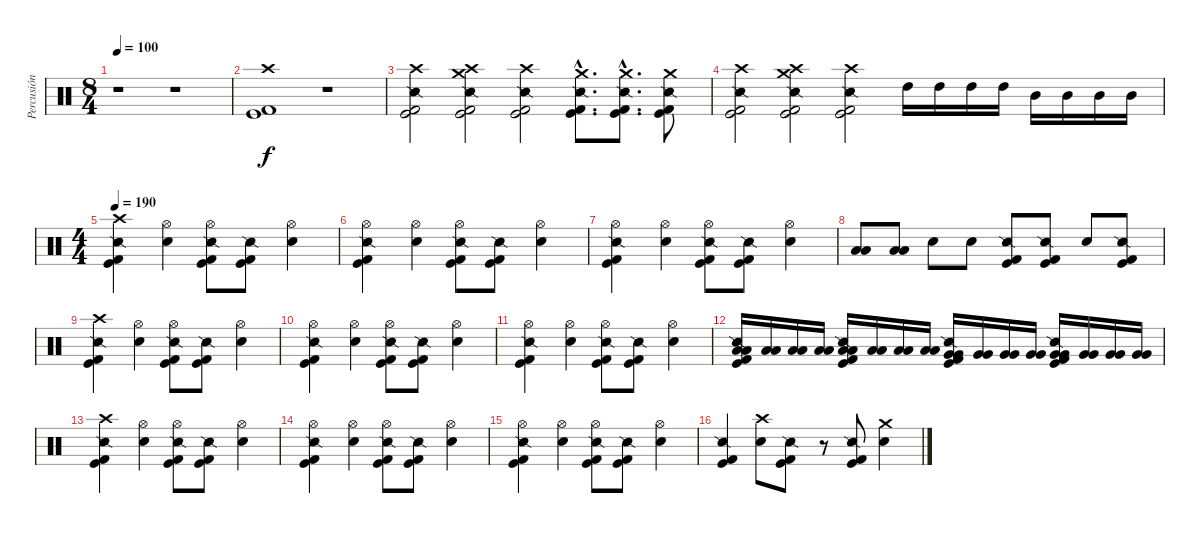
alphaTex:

\track ("Percusión" "Percusión") {instrument percussion}
\staff {score}
\articulation defaults
\ts (8 4)
\tempo 100
\clef neutral
\ks c
r.1{dy f} r.1 |
("Crash high (hit)" "Kick (hit)" "Kick (hit) 2").1 r.1 |
("Crash high (hit)" "Snare (side stick) 2" "Kick (hit)" "Kick (hit) 2").2 ("Crash high (hit)" "Crash medium (hit)" "Snare (side stick) 2" "Kick (hit)" "Kick (hit) 2").2 ("Crash high (hit)" "Snare (side stick) 2" "Kick (hit)" "Kick (hit) 2").2 ("Crash medium (hit)"{hac} "Snare (side stick) 2"{hac} "Kick (hit)"{hac} "Kick (hit) 2"{hac}).8{d} ("Crash medium (hit)"{hac} "Snare (side stick) 2"{hac} "Kick (hit)"{hac} "Kick (hit) 2"{hac}).8{d} ("Crash medium (hit)" "Snare (side stick) 2" "Kick (hit)" "Kick (hit) 2").8 |
("Crash high (hit)" "Snare (side stick) 2" "Kick (hit)" "Kick (hit) 2").2 ("Crash high (hit)" "Crash medium (hit)" "Snare (side stick) 2" "Kick (hit)" "Kick (hit) 2").2 ("Crash high (hit)" "Snare (side stick) 2" "Kick (hit)" "Kick (hit) 2").2 "High Tom (hit)".16 "High Tom (hit)".16 "High Tom (hit)".16 "High Tom (hit)".16 "Mid Tom (hit)".16 "Mid Tom (hit)".16 "Mid Tom (hit)".16 "Mid Tom (hit)".16 |
\ts (4 4)
\tempo 190
("Crash high (hit)" "Snare (side stick) 2" "Kick (hit)" "Kick (hit) 2").4 ("Hi-Hat (open)" "Snare (hit) 2").4 ("Hi-Hat (open)" "Snare (side stick) 2" "Kick (hit)" "Kick (hit) 2").8 ("Snare (side stick) 2" "Kick (hit)" "Kick (hit) 2").8 ("Hi-Hat (open)" "Snare (hit) 2").4 |
("Hi-Hat (open)" "Snare (side stick) 2" "Kick (hit)" "Kick (hit) 2").4 ("Hi-Hat (open)" "Snare (hit) 2").4 ("Hi-Hat (open)" "Snare (side stick) 2" "Kick (hit)" "Kick (hit) 2").8 ("Snare (side stick) 2" "Kick (hit)" "Kick (hit) 2").8 ("Hi-Hat (open)" "Snare (hit) 2").4 |
("Hi-Hat (open)" "Snare (side stick) 2" "Kick (hit)" "Kick (hit) 2").4 ("Hi-Hat (open)" "Snare (hit) 2").4 ("Hi-Hat (open)" "Snare (side stick) 2" "Kick (hit)" "Kick (hit) 2").8 ("Snare (side stick) 2" "Kick (hit)" "Kick (hit) 2").8 ("Hi-Hat (open)" "Snare (hit) 2").4 |
("Low Tom (hit)" "Low Tom (hit)").8 ("Low Tom (hit)" "Low Tom (hit)").8 "Snare (hit) 2".8 "Snare (hit) 2".8 ("Snare (side stick) 2" "Kick (hit)" "Kick (hit) 2").8 ("Snare (side stick) 2" "Kick (hit)" "Kick (hit) 2").8 "Snare (hit) 2".8 ("Snare (side stick) 2" "Kick (hit)" "Kick (hit) 2").8 |
("Crash high (hit)" "Snare (side stick) 2" "Kick (hit)" "Kick (hit) 2").4 ("Hi-Hat (open)" "Snare (hit) 2").4 ("Hi-Hat (open)" "Snare (side stick) 2" "Kick (hit)" "Kick (hit) 2").8 ("Snare (side stick) 2" "Kick (hit)" "Kick (hit) 2").8 ("Hi-Hat (open)" "Snare (hit) 2").4 |
("Hi-Hat (open)" "Snare (side stick) 2" "Kick (hit)" "Kick (hit) 2").4 ("Hi-Hat (open)" "Snare (hit) 2").4 ("Hi-Hat (open)" "Snare (side stick) 2" "Kick (hit)" "Kick (hit) 2").8 ("Snare (side stick) 2" "Kick (hit)" "Kick (hit) 2").8 ("Hi-Hat (open)" "Snare (hit) 2").4 |
("Hi-Hat (open)" "Snare (side stick) 2" "Kick (hit)" "Kick (hit) 2").4 ("Hi-Hat (open)" "Snare (hit) 2").4 ("Hi-Hat (open)" "Snare (side stick) 2" "Kick (hit)" "Kick (hit) 2").8 ("Snare (side stick) 2" "Kick (hit)" "Kick (hit) 2").8 ("Hi-Hat (open)" "Snare (hit) 2").4 |
("Low Tom (hit)" "Low Tom (hit)" "Snare (side stick) 2" "Kick (hit)" "Kick (hit) 2").16 ("Low Tom (hit)" "Low Tom (hit)").16 ("Low Tom (hit)" "Low Tom (hit)").16 ("Low Tom (hit)" "Low Tom (hit)").16 ("Low Tom (hit)" "Low Tom (hit)" "Snare (side stick) 2" "Kick (hit)" "Kick (hit) 2").16 ("Low Tom (hit)" "Low Tom (hit)").16 ("Low Tom (hit)" "Low Tom (hit)").16 ("Low Tom (hit)" "Low Tom (hit)").16 ("Very Low Tom (hit)" "Very Low Tom (hit)" "Snare (side stick) 2" "Kick (hit)" "Kick (hit) 2").16 ("Very Low Tom (hit)" "Very Low Tom (hit)").16 ("Very Low Tom (hit)" "Very Low Tom (hit)").16 ("Very Low Tom (hit)" "Very Low Tom (hit)").16 ("Very Low Tom (hit)" "Very Low Tom (hit)" "Snare (side stick) 2" "Kick (hit)" "Kick (hit) 2").16 ("Very Low Tom (hit)" "Very Low Tom (hit)").16 ("Very Low Tom (hit)" "Very Low Tom (hit)").16 ("Very Low Tom (hit)" "Very Low Tom (hit)").16 |
("Crash high (hit)" "Snare (side stick) 2" "Kick (hit)" "Kick (hit) 2").4 ("Hi-Hat (open)" "Snare (hit) 2").4 ("Hi-Hat (open)" "Snare (side stick) 2" "Kick (hit)" "Kick (hit) 2").8 ("Snare (side stick) 2" "Kick (hit)" "Kick (hit) 2").8 ("Hi-Hat (open)" "Snare (hit) 2").4 |
("Hi-Hat (open)" "Snare (side stick) 2" "Kick (hit)" "Kick (hit) 2").4 ("Hi-Hat (open)" "Snare (hit) 2").4 ("Hi-Hat (open)" "Snare (side stick) 2" "Kick (hit)" "Kick (hit) 2").8 ("Snare (side stick) 2" "Kick (hit)" "Kick (hit) 2").8 ("Hi-Hat (open)" "Snare (hit) 2").4 |
("Hi-Hat (open)" "Snare (side stick) 2" "Kick (hit)" "Kick (hit) 2").4 ("Hi-Hat (open)" "Snare (hit) 2").4 ("Hi-Hat (open)" "Snare (side stick) 2" "Kick (hit)" "Kick (hit) 2").8 ("Snare (side stick) 2" "Kick (hit)" "Kick (hit) 2").8 ("Hi-Hat (open)" "Snare (hit) 2").4 |
("Snare (side stick) 2" "Kick (hit)" "Kick (hit) 2").4 ("Crash high (hit)" "Snare (hit) 2").8 ("Snare (side stick) 2" "Kick (hit)" "Kick (hit) 2").8 r.8 ("Snare (side stick) 2" "Kick (hit)" "Kick (hit) 2").8 ("Crash medium (hit)" "Snare (hit) 2").4
